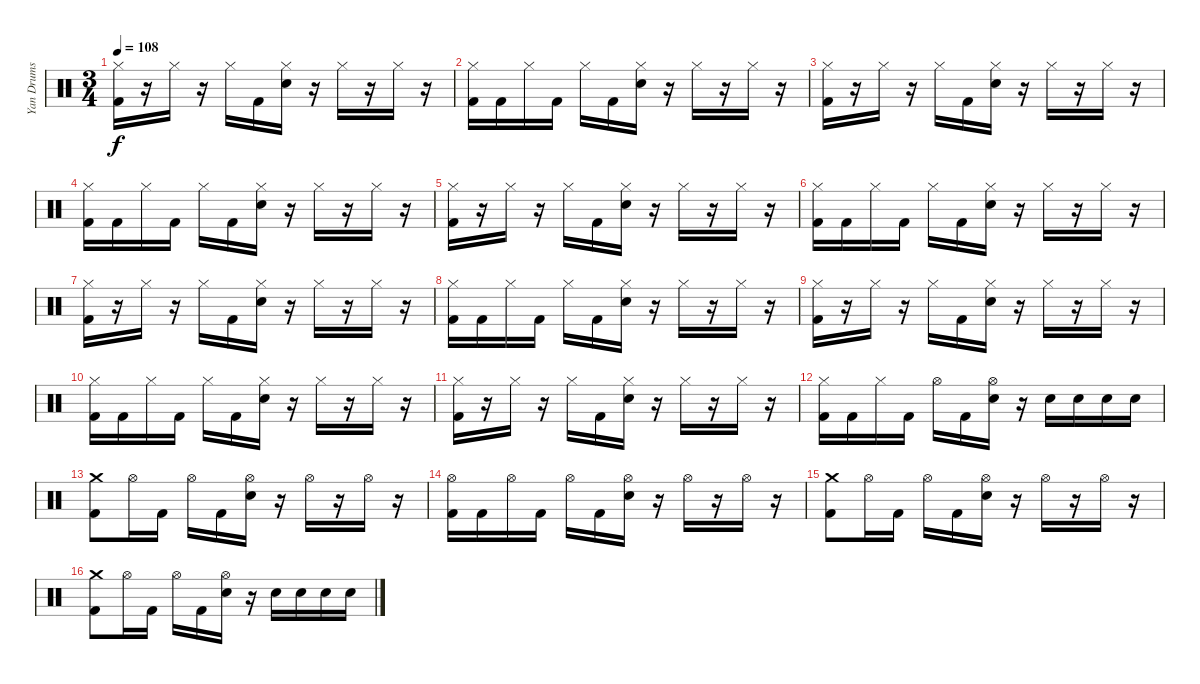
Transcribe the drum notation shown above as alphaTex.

\track ("Yan Drums" "Yan Drums") {instrument percussion}
\staff {score}
\articulation defaults
\ts (3 4)
\tempo 108
\clef neutral
\ks c
("Kick (hit) 2" "Hi-Hat (closed)").16{dy f} r.16 "Hi-Hat (closed)".16 r.16 "Hi-Hat (closed)".16 "Kick (hit) 2".16 ("Electric Snare (hit)" "Hi-Hat (closed)").16 r.16 "Hi-Hat (closed)".16 r.16 "Hi-Hat (closed)".16 r.16 |
("Kick (hit) 2" "Hi-Hat (closed)").16 "Kick (hit) 2".16 "Hi-Hat (closed)".16 "Kick (hit) 2".16 "Hi-Hat (closed)".16 "Kick (hit) 2".16 ("Electric Snare (hit)" "Hi-Hat (closed)").16 r.16 "Hi-Hat (closed)".16 r.16 "Hi-Hat (closed)".16 r.16 |
("Kick (hit) 2" "Hi-Hat (closed)").16 r.16 "Hi-Hat (closed)".16 r.16 "Hi-Hat (closed)".16 "Kick (hit) 2".16 ("Electric Snare (hit)" "Hi-Hat (closed)").16 r.16 "Hi-Hat (closed)".16 r.16 "Hi-Hat (closed)".16 r.16 |
("Kick (hit) 2" "Hi-Hat (closed)").16 "Kick (hit) 2".16 "Hi-Hat (closed)".16 "Kick (hit) 2".16 "Hi-Hat (closed)".16 "Kick (hit) 2".16 ("Electric Snare (hit)" "Hi-Hat (closed)").16 r.16 "Hi-Hat (closed)".16 r.16 "Hi-Hat (closed)".16 r.16 |
("Kick (hit) 2" "Hi-Hat (closed)").16 r.16 "Hi-Hat (closed)".16 r.16 "Hi-Hat (closed)".16 "Kick (hit) 2".16 ("Electric Snare (hit)" "Hi-Hat (closed)").16 r.16 "Hi-Hat (closed)".16 r.16 "Hi-Hat (closed)".16 r.16 |
("Kick (hit) 2" "Hi-Hat (closed)").16 "Kick (hit) 2".16 "Hi-Hat (closed)".16 "Kick (hit) 2".16 "Hi-Hat (closed)".16 "Kick (hit) 2".16 ("Electric Snare (hit)" "Hi-Hat (closed)").16 r.16 "Hi-Hat (closed)".16 r.16 "Hi-Hat (closed)".16 r.16 |
("Kick (hit) 2" "Hi-Hat (closed)").16 r.16 "Hi-Hat (closed)".16 r.16 "Hi-Hat (closed)".16 "Kick (hit) 2".16 ("Electric Snare (hit)" "Hi-Hat (closed)").16 r.16 "Hi-Hat (closed)".16 r.16 "Hi-Hat (closed)".16 r.16 |
("Kick (hit) 2" "Hi-Hat (closed)").16 "Kick (hit) 2".16 "Hi-Hat (closed)".16 "Kick (hit) 2".16 "Hi-Hat (closed)".16 "Kick (hit) 2".16 ("Electric Snare (hit)" "Hi-Hat (closed)").16 r.16 "Hi-Hat (closed)".16 r.16 "Hi-Hat (closed)".16 r.16 |
("Kick (hit) 2" "Hi-Hat (closed)").16 r.16 "Hi-Hat (closed)".16 r.16 "Hi-Hat (closed)".16 "Kick (hit) 2".16 ("Electric Snare (hit)" "Hi-Hat (closed)").16 r.16 "Hi-Hat (closed)".16 r.16 "Hi-Hat (closed)".16 r.16 |
("Kick (hit) 2" "Hi-Hat (closed)").16 "Kick (hit) 2".16 "Hi-Hat (closed)".16 "Kick (hit) 2".16 "Hi-Hat (closed)".16 "Kick (hit) 2".16 ("Electric Snare (hit)" "Hi-Hat (closed)").16 r.16 "Hi-Hat (closed)".16 r.16 "Hi-Hat (closed)".16 r.16 |
("Kick (hit) 2" "Hi-Hat (closed)").16 r.16 "Hi-Hat (closed)".16 r.16 "Hi-Hat (closed)".16 "Kick (hit) 2".16 ("Electric Snare (hit)" "Hi-Hat (closed)").16 r.16 "Hi-Hat (closed)".16 r.16 "Hi-Hat (closed)".16 r.16 |
("Kick (hit) 2" "Hi-Hat (closed)").16 "Kick (hit) 2".16 "Hi-Hat (closed)".16 "Kick (hit) 2".16 "Hi-Hat (open)".16 "Kick (hit) 2".16 ("Electric Snare (hit)" "Hi-Hat (open)").16 r.16 "Electric Snare (hit)".16 "Electric Snare (hit)".16 "Electric Snare (hit)".16 "Electric Snare (hit)".16 |
("Kick (hit) 2" "Crash medium (hit)").8 "Hi-Hat (open)".16 "Kick (hit) 2".16 "Hi-Hat (open)".16 "Kick (hit) 2".16 ("Electric Snare (hit)" "Hi-Hat (open)").16 r.16 "Hi-Hat (open)".16 r.16 "Hi-Hat (open)".16 r.16 |
("Kick (hit) 2" "Hi-Hat (open)").16 "Kick (hit) 2".16 "Hi-Hat (open)".16 "Kick (hit) 2".16 "Hi-Hat (open)".16 "Kick (hit) 2".16 ("Electric Snare (hit)" "Hi-Hat (open)").16 r.16 "Hi-Hat (open)".16 r.16 "Hi-Hat (open)".16 r.16 |
("Kick (hit) 2" "Crash medium (hit)").8 "Hi-Hat (open)".16 "Kick (hit) 2".16 "Hi-Hat (open)".16 "Kick (hit) 2".16 ("Electric Snare (hit)" "Hi-Hat (open)").16 r.16 "Hi-Hat (open)".16 r.16 "Hi-Hat (open)".16 r.16 |
("Kick (hit) 2" "Crash medium (hit)").8 "Hi-Hat (open)".16 "Kick (hit) 2".16 "Hi-Hat (open)".16 "Kick (hit) 2".16 ("Electric Snare (hit)" "Hi-Hat (open)").16 r.16 "Electric Snare (hit)".16 "Electric Snare (hit)".16 "Electric Snare (hit)".16 "Electric Snare (hit)".16
